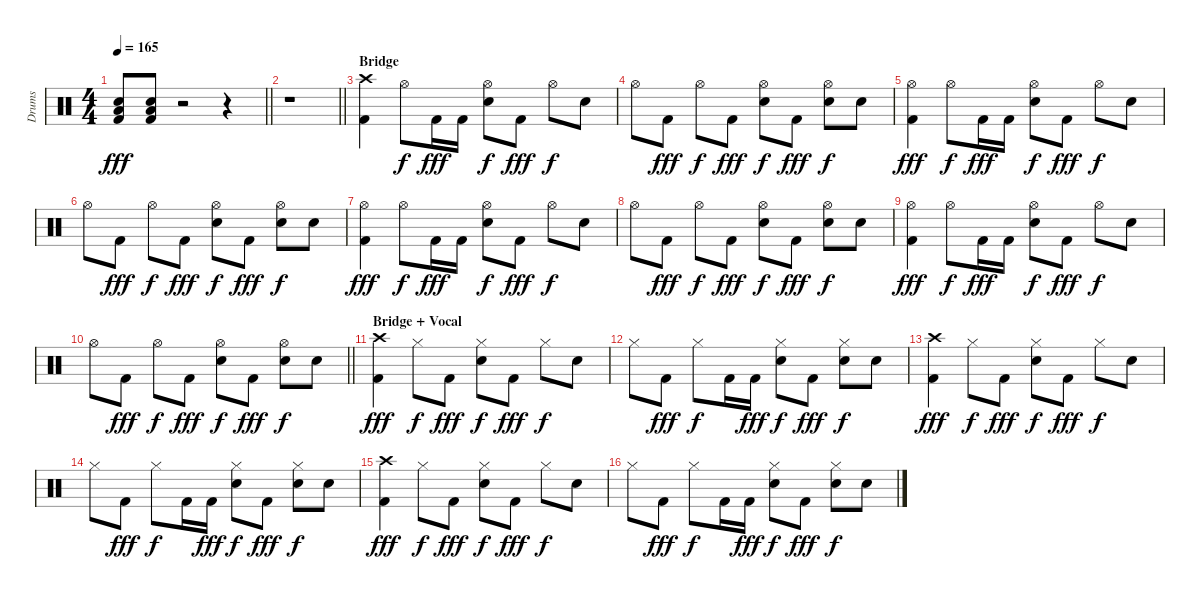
\track ("Drums" "Drums") {instrument percussion}
\staff {score}
\articulation defaults
\ts (4 4)
\tempo 165
\clef neutral
\barLineRight lightlight
\ks c
("Snare (hit) 2" "Low Floor Tom (hit)" "Kick (hit) 2").8{dy fff} ("Snare (hit) 2" "Low Floor Tom (hit)" "Kick (hit) 2").8 r.2 r.4 |
\barLineRight lightlight
r.1 |
\section ("" "Bridge")
("Crash high (hit)" "Kick (hit) 2").4 "Hi-Hat (open)".8{dy f} "Kick (hit) 2".16{dy fff} "Kick (hit) 2".16 ("Hi-Hat (open)" "Snare (hit) 2").8{dy f} "Kick (hit) 2".8{dy fff} "Hi-Hat (open)".8{dy f} "Snare (hit) 2".8 |
"Hi-Hat (open)".8 "Kick (hit) 2".8{dy fff} "Hi-Hat (open)".8{dy f} "Kick (hit) 2".8{dy fff} ("Hi-Hat (open)" "Snare (hit) 2").8{dy f} "Kick (hit) 2".8{dy fff} ("Hi-Hat (open)" "Snare (hit) 2").8{dy f} "Snare (hit) 2".8 |
("Hi-Hat (open)" "Kick (hit) 2").4{dy fff} "Hi-Hat (open)".8{dy f} "Kick (hit) 2".16{dy fff} "Kick (hit) 2".16 ("Hi-Hat (open)" "Snare (hit) 2").8{dy f} "Kick (hit) 2".8{dy fff} "Hi-Hat (open)".8{dy f} "Snare (hit) 2".8 |
"Hi-Hat (open)".8 "Kick (hit) 2".8{dy fff} "Hi-Hat (open)".8{dy f} "Kick (hit) 2".8{dy fff} ("Hi-Hat (open)" "Snare (hit) 2").8{dy f} "Kick (hit) 2".8{dy fff} ("Hi-Hat (open)" "Snare (hit) 2").8{dy f} "Snare (hit) 2".8 |
("Hi-Hat (open)" "Kick (hit) 2").4{dy fff} "Hi-Hat (open)".8{dy f} "Kick (hit) 2".16{dy fff} "Kick (hit) 2".16 ("Hi-Hat (open)" "Snare (hit) 2").8{dy f} "Kick (hit) 2".8{dy fff} "Hi-Hat (open)".8{dy f} "Snare (hit) 2".8 |
"Hi-Hat (open)".8 "Kick (hit) 2".8{dy fff} "Hi-Hat (open)".8{dy f} "Kick (hit) 2".8{dy fff} ("Hi-Hat (open)" "Snare (hit) 2").8{dy f} "Kick (hit) 2".8{dy fff} ("Hi-Hat (open)" "Snare (hit) 2").8{dy f} "Snare (hit) 2".8 |
("Hi-Hat (open)" "Kick (hit) 2").4{dy fff} "Hi-Hat (open)".8{dy f} "Kick (hit) 2".16{dy fff} "Kick (hit) 2".16 ("Hi-Hat (open)" "Snare (hit) 2").8{dy f} "Kick (hit) 2".8{dy fff} "Hi-Hat (open)".8{dy f} "Snare (hit) 2".8 |
\barLineRight lightlight "Hi-Hat (open)".8 "Kick (hit) 2".8{dy fff} "Hi-Hat (open)".8{dy f} "Kick (hit) 2".8{dy fff}
("Hi-Hat (open)" "Snare (hit) 2").8{dy f} "Kick (hit) 2".8{dy fff} ("Hi-Hat (open)" "Snare (hit) 2").8{dy f} "Snare (hit) 2".8 |
\section ("" "Bridge + Vocal")
("Crash high (hit)" "Kick (hit) 2").4{dy fff} "Hi-Hat (closed)".8{dy f} "Kick (hit) 2".8{dy fff} ("Hi-Hat (closed)" "Snare (hit) 2").8{dy f} "Kick (hit) 2".8{dy fff} "Hi-Hat (closed)".8{dy f} "Snare (hit) 2".8 |
"Hi-Hat (closed)".8 "Kick (hit) 2".8{dy fff} "Hi-Hat (closed)".8{dy f} "Kick (hit) 2".16 "Kick (hit) 2".16{dy fff} ("Hi-Hat (closed)" "Snare (hit) 2").8{dy f} "Kick (hit) 2".8{dy fff} ("Hi-Hat (closed)" "Snare (hit) 2").8{dy f} "Snare (hit) 2".8 |
("Crash high (hit)" "Kick (hit) 2").4{dy fff} "Hi-Hat (closed)".8{dy f} "Kick (hit) 2".8{dy fff} ("Hi-Hat (closed)" "Snare (hit) 2").8{dy f} "Kick (hit) 2".8{dy fff} "Hi-Hat (closed)".8{dy f} "Snare (hit) 2".8 |
"Hi-Hat (closed)".8 "Kick (hit) 2".8{dy fff} "Hi-Hat (closed)".8{dy f} "Kick (hit) 2".16 "Kick (hit) 2".16{dy fff} ("Hi-Hat (closed)" "Snare (hit) 2").8{dy f} "Kick (hit) 2".8{dy fff} ("Hi-Hat (closed)" "Snare (hit) 2").8{dy f} "Snare (hit) 2".8 |
("Crash high (hit)" "Kick (hit) 2").4{dy fff} "Hi-Hat (closed)".8{dy f} "Kick (hit) 2".8{dy fff} ("Hi-Hat (closed)" "Snare (hit) 2").8{dy f} "Kick (hit) 2".8{dy fff} "Hi-Hat (closed)".8{dy f} "Snare (hit) 2".8 |
"Hi-Hat (closed)".8 "Kick (hit) 2".8{dy fff} "Hi-Hat (closed)".8{dy f} "Kick (hit) 2".16 "Kick (hit) 2".16{dy fff} ("Hi-Hat (closed)" "Snare (hit) 2").8{dy f} "Kick (hit) 2".8{dy fff} ("Hi-Hat (closed)" "Snare (hit) 2").8{dy f} "Snare (hit) 2".8
